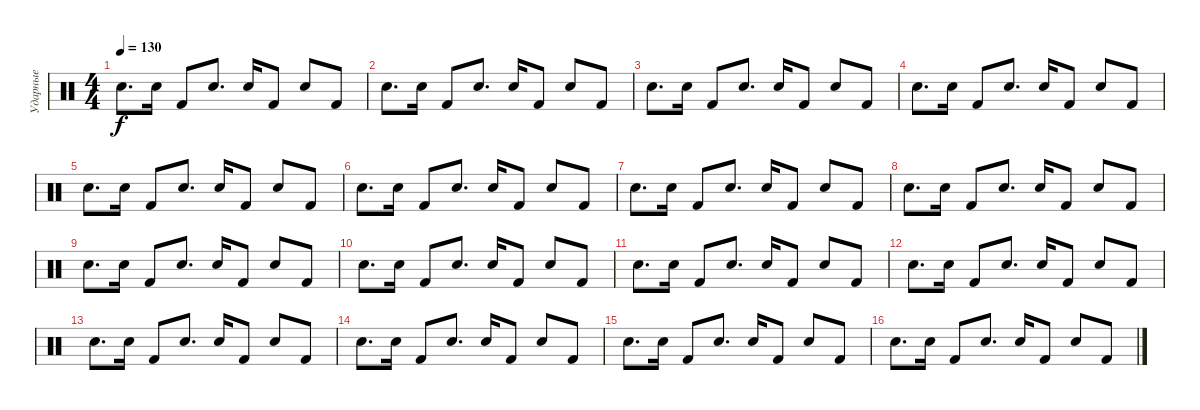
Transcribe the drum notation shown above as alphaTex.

\track ("Ударные" "Ударные") {instrument percussion}
\staff {score}
\articulation defaults
\ts (4 4)
\tempo 130
\clef neutral
\ks c "Snare (hit) 2".8{d dy f} "Hand Clap (hit)".16 "Kick (hit) 2".8 "Snare (hit) 2".8{d} "Hand Clap (hit)".16 "Kick (hit) 2".8 "Snare (hit) 2".8 "Kick (hit) 2".8
|
"Snare (hit) 2".8{d} "Hand Clap (hit)".16 "Kick (hit) 2".8 "Snare (hit) 2".8{d} "Hand Clap (hit)".16 "Kick (hit) 2".8 "Snare (hit) 2".8 "Kick (hit) 2".8 |
"Snare (hit) 2".8{d} "Hand Clap (hit)".16 "Kick (hit) 2".8 "Snare (hit) 2".8{d} "Hand Clap (hit)".16 "Kick (hit) 2".8 "Snare (hit) 2".8 "Kick (hit) 2".8 |
"Snare (hit) 2".8{d} "Hand Clap (hit)".16 "Kick (hit) 2".8 "Snare (hit) 2".8{d} "Hand Clap (hit)".16 "Kick (hit) 2".8 "Snare (hit) 2".8 "Kick (hit) 2".8 |
"Snare (hit) 2".8{d} "Hand Clap (hit)".16 "Kick (hit) 2".8 "Snare (hit) 2".8{d} "Hand Clap (hit)".16 "Kick (hit) 2".8 "Snare (hit) 2".8 "Kick (hit) 2".8 |
"Snare (hit) 2".8{d} "Hand Clap (hit)".16 "Kick (hit) 2".8 "Snare (hit) 2".8{d} "Hand Clap (hit)".16 "Kick (hit) 2".8 "Snare (hit) 2".8 "Kick (hit) 2".8 |
"Snare (hit) 2".8{d} "Hand Clap (hit)".16 "Kick (hit) 2".8 "Snare (hit) 2".8{d} "Hand Clap (hit)".16 "Kick (hit) 2".8 "Snare (hit) 2".8 "Kick (hit) 2".8 |
"Snare (hit) 2".8{d} "Hand Clap (hit)".16 "Kick (hit) 2".8 "Snare (hit) 2".8{d} "Hand Clap (hit)".16 "Kick (hit) 2".8 "Snare (hit) 2".8 "Kick (hit) 2".8 |
"Snare (hit) 2".8{d} "Hand Clap (hit)".16 "Kick (hit) 2".8 "Snare (hit) 2".8{d} "Hand Clap (hit)".16 "Kick (hit) 2".8 "Snare (hit) 2".8 "Kick (hit) 2".8 |
"Snare (hit) 2".8{d} "Hand Clap (hit)".16 "Kick (hit) 2".8 "Snare (hit) 2".8{d} "Hand Clap (hit)".16 "Kick (hit) 2".8 "Snare (hit) 2".8 "Kick (hit) 2".8 |
"Snare (hit) 2".8{d} "Hand Clap (hit)".16 "Kick (hit) 2".8 "Snare (hit) 2".8{d} "Hand Clap (hit)".16 "Kick (hit) 2".8 "Snare (hit) 2".8 "Kick (hit) 2".8 |
"Snare (hit) 2".8{d} "Hand Clap (hit)".16 "Kick (hit) 2".8 "Snare (hit) 2".8{d} "Hand Clap (hit)".16 "Kick (hit) 2".8 "Snare (hit) 2".8 "Kick (hit) 2".8 |
"Snare (hit) 2".8{d} "Hand Clap (hit)".16 "Kick (hit) 2".8 "Snare (hit) 2".8{d} "Hand Clap (hit)".16 "Kick (hit) 2".8 "Snare (hit) 2".8 "Kick (hit) 2".8 |
"Snare (hit) 2".8{d} "Hand Clap (hit)".16 "Kick (hit) 2".8 "Snare (hit) 2".8{d} "Hand Clap (hit)".16 "Kick (hit) 2".8 "Snare (hit) 2".8 "Kick (hit) 2".8 |
"Snare (hit) 2".8{d} "Hand Clap (hit)".16 "Kick (hit) 2".8 "Snare (hit) 2".8{d} "Hand Clap (hit)".16 "Kick (hit) 2".8 "Snare (hit) 2".8 "Kick (hit) 2".8 |
"Snare (hit) 2".8{d} "Hand Clap (hit)".16 "Kick (hit) 2".8 "Snare (hit) 2".8{d} "Hand Clap (hit)".16 "Kick (hit) 2".8 "Snare (hit) 2".8 "Kick (hit) 2".8
